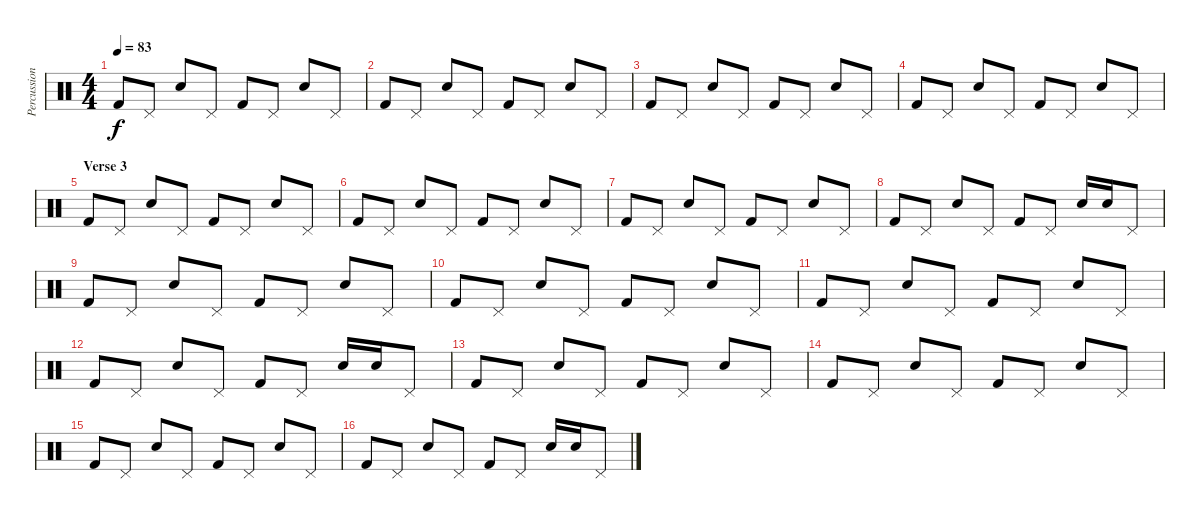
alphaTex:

\track ("Percussion" "Percussion") {instrument percussion}
\staff {score}
\articulation defaults
\ts (4 4)
\tempo 83
\clef neutral
\ks c "Kick (hit) 2".8{dy f} "Pedal Hi-Hat (hit)".8 "Electric Snare (hit)".8 "Pedal Hi-Hat (hit)".8 "Kick (hit) 2".8 "Pedal Hi-Hat (hit)".8 "Electric Snare (hit)".8 "Pedal Hi-Hat (hit)".8
|
"Kick (hit) 2".8 "Pedal Hi-Hat (hit)".8 "Electric Snare (hit)".8 "Pedal Hi-Hat (hit)".8 "Kick (hit) 2".8 "Pedal Hi-Hat (hit)".8 "Electric Snare (hit)".8 "Pedal Hi-Hat (hit)".8 |
"Kick (hit) 2".8 "Pedal Hi-Hat (hit)".8 "Electric Snare (hit)".8 "Pedal Hi-Hat (hit)".8 "Kick (hit) 2".8 "Pedal Hi-Hat (hit)".8 "Electric Snare (hit)".8 "Pedal Hi-Hat (hit)".8 |
"Kick (hit) 2".8 "Pedal Hi-Hat (hit)".8 "Electric Snare (hit)".8 "Pedal Hi-Hat (hit)".8 "Kick (hit) 2".8 "Pedal Hi-Hat (hit)".8 "Electric Snare (hit)".8 "Pedal Hi-Hat (hit)".8 |
\section ("" "Verse 3")
"Kick (hit) 2".8 "Pedal Hi-Hat (hit)".8 "Electric Snare (hit)".8 "Pedal Hi-Hat (hit)".8 "Kick (hit) 2".8 "Pedal Hi-Hat (hit)".8 "Electric Snare (hit)".8 "Pedal Hi-Hat (hit)".8 |
"Kick (hit) 2".8 "Pedal Hi-Hat (hit)".8 "Electric Snare (hit)".8 "Pedal Hi-Hat (hit)".8 "Kick (hit) 2".8 "Pedal Hi-Hat (hit)".8 "Electric Snare (hit)".8 "Pedal Hi-Hat (hit)".8 |
"Kick (hit) 2".8 "Pedal Hi-Hat (hit)".8 "Electric Snare (hit)".8 "Pedal Hi-Hat (hit)".8 "Kick (hit) 2".8 "Pedal Hi-Hat (hit)".8 "Electric Snare (hit)".8 "Pedal Hi-Hat (hit)".8 |
"Kick (hit) 2".8 "Pedal Hi-Hat (hit)".8 "Electric Snare (hit)".8 "Pedal Hi-Hat (hit)".8 "Kick (hit) 2".8 "Pedal Hi-Hat (hit)".8 "Electric Snare (hit)".16 "Electric Snare (hit)".16 "Pedal Hi-Hat (hit)".8 |
"Kick (hit) 2".8 "Pedal Hi-Hat (hit)".8 "Electric Snare (hit)".8 "Pedal Hi-Hat (hit)".8 "Kick (hit) 2".8 "Pedal Hi-Hat (hit)".8 "Electric Snare (hit)".8 "Pedal Hi-Hat (hit)".8 |
"Kick (hit) 2".8 "Pedal Hi-Hat (hit)".8 "Electric Snare (hit)".8 "Pedal Hi-Hat (hit)".8 "Kick (hit) 2".8 "Pedal Hi-Hat (hit)".8 "Electric Snare (hit)".8 "Pedal Hi-Hat (hit)".8 |
"Kick (hit) 2".8 "Pedal Hi-Hat (hit)".8 "Electric Snare (hit)".8 "Pedal Hi-Hat (hit)".8 "Kick (hit) 2".8 "Pedal Hi-Hat (hit)".8 "Electric Snare (hit)".8 "Pedal Hi-Hat (hit)".8 |
"Kick (hit) 2".8 "Pedal Hi-Hat (hit)".8 "Electric Snare (hit)".8 "Pedal Hi-Hat (hit)".8 "Kick (hit) 2".8 "Pedal Hi-Hat (hit)".8 "Electric Snare (hit)".16 "Electric Snare (hit)".16 "Pedal Hi-Hat (hit)".8 |
"Kick (hit) 2".8 "Pedal Hi-Hat (hit)".8 "Electric Snare (hit)".8 "Pedal Hi-Hat (hit)".8 "Kick (hit) 2".8 "Pedal Hi-Hat (hit)".8 "Electric Snare (hit)".8 "Pedal Hi-Hat (hit)".8 |
"Kick (hit) 2".8 "Pedal Hi-Hat (hit)".8 "Electric Snare (hit)".8 "Pedal Hi-Hat (hit)".8 "Kick (hit) 2".8 "Pedal Hi-Hat (hit)".8 "Electric Snare (hit)".8 "Pedal Hi-Hat (hit)".8 |
"Kick (hit) 2".8 "Pedal Hi-Hat (hit)".8 "Electric Snare (hit)".8 "Pedal Hi-Hat (hit)".8 "Kick (hit) 2".8 "Pedal Hi-Hat (hit)".8 "Electric Snare (hit)".8 "Pedal Hi-Hat (hit)".8 |
"Kick (hit) 2".8 "Pedal Hi-Hat (hit)".8 "Electric Snare (hit)".8 "Pedal Hi-Hat (hit)".8 "Kick (hit) 2".8 "Pedal Hi-Hat (hit)".8 "Electric Snare (hit)".16 "Electric Snare (hit)".16 "Pedal Hi-Hat (hit)".8
